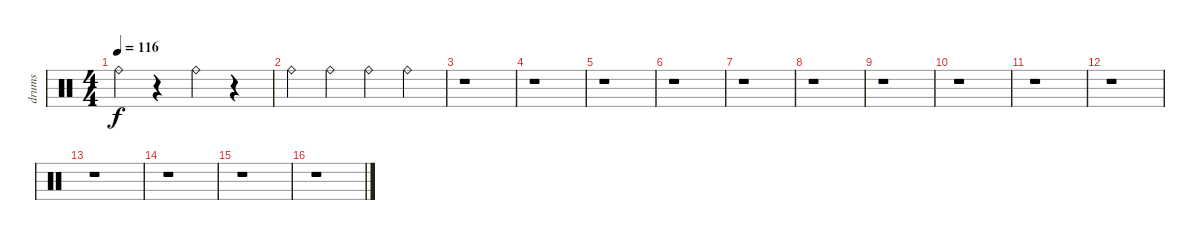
\track ("drums" "drums") {instrument percussion}
\staff {score}
\articulation defaults
\ts (4 4)
\tempo 116
\clef neutral
\ks c "Ride (bell)".4{dy f}
r.4 "Ride (bell)".4 r.4 |
"Ride (bell)".4 "Ride (bell)".4 "Ride (bell)".4 "Ride (bell)".4 |
r.1 |
r.1 |
r.1 |
r.1 |
r.1 |
r.1 |
r.1 |
r.1 |
r.1 |
r.1 |
r.1 |
r.1 |
r.1 |
r.1
